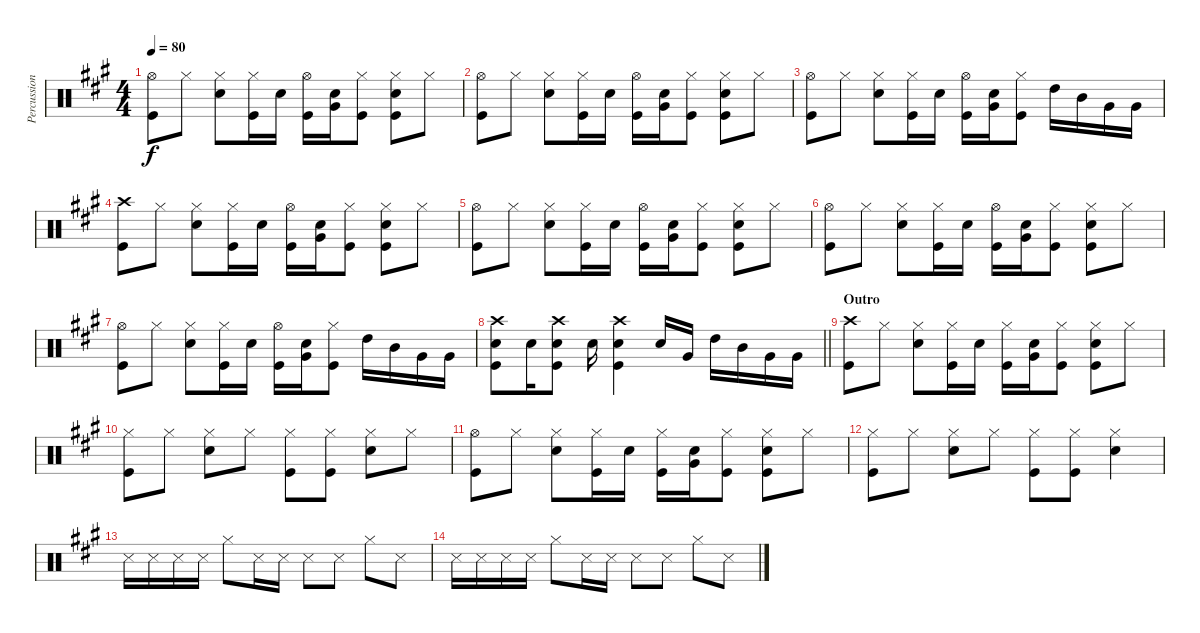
\track ("Percussion" "Percussion") {instrument percussion bank 47}
\staff {score}
\articulation defaults
\ts (4 4)
\tempo 80
\clef neutral
\ks a
("Hi-Hat (open)" "Kick (hit)").8{dy f} "Hi-Hat (closed)".8 ("Hi-Hat (closed)" "Snare (hit) 2").8 ("Hi-Hat (closed)" "Kick (hit)").16 "Snare (hit) 2".16 ("Hi-Hat (open)" "Kick (hit)").16 ("Very Low Tom (hit)" "Snare (hit) 2").16 ("Hi-Hat (closed)" "Kick (hit)").8 ("Hi-Hat (closed)" "Snare (hit) 2" "Kick (hit)").8 "Hi-Hat (closed)".8 |
("Hi-Hat (open)" "Kick (hit)").8 "Hi-Hat (closed)".8 ("Hi-Hat (closed)" "Snare (hit) 2").8 ("Hi-Hat (closed)" "Kick (hit)").16 "Snare (hit) 2".16 ("Hi-Hat (open)" "Kick (hit)").16 ("Very Low Tom (hit)" "Snare (hit) 2").16 ("Hi-Hat (closed)" "Kick (hit)").8 ("Hi-Hat (closed)" "Snare (hit) 2" "Kick (hit)").8 "Hi-Hat (closed)".8 |
("Hi-Hat (open)" "Kick (hit)").8 "Hi-Hat (closed)".8 ("Hi-Hat (closed)" "Snare (hit) 2").8 ("Hi-Hat (closed)" "Kick (hit)").16 "Snare (hit) 2".16 ("Hi-Hat (open)" "Kick (hit)").16 ("Very Low Tom (hit)" "Snare (hit) 2").16 ("Hi-Hat (closed)" "Kick (hit)").8 "High Tom (hit)".16 "Mid Tom (hit)".16 "Very Low Tom (hit)".16 "Very Low Tom (hit)".16 |
("Crash high (hit)" "Kick (hit)").8 "Hi-Hat (closed)".8 ("Hi-Hat (closed)" "Snare (hit) 2").8 ("Hi-Hat (closed)" "Kick (hit)").16 "Snare (hit) 2".16 ("Hi-Hat (open)" "Kick (hit)").16 ("Very Low Tom (hit)" "Snare (hit) 2").16 ("Hi-Hat (closed)" "Kick (hit)").8 ("Hi-Hat (closed)" "Snare (hit) 2" "Kick (hit)").8 "Hi-Hat (closed)".8 |
("Hi-Hat (open)" "Kick (hit)").8 "Hi-Hat (closed)".8 ("Hi-Hat (closed)" "Snare (hit) 2").8 ("Hi-Hat (closed)" "Kick (hit)").16 "Snare (hit) 2".16 ("Hi-Hat (open)" "Kick (hit)").16 ("Very Low Tom (hit)" "Snare (hit) 2").16 ("Hi-Hat (closed)" "Kick (hit)").8 ("Hi-Hat (closed)" "Snare (hit) 2" "Kick (hit)").8 "Hi-Hat (closed)".8 |
("Hi-Hat (open)" "Kick (hit)").8 "Hi-Hat (closed)".8 ("Hi-Hat (closed)" "Snare (hit) 2").8 ("Hi-Hat (closed)" "Kick (hit)").16 "Snare (hit) 2".16 ("Hi-Hat (open)" "Kick (hit)").16 ("Very Low Tom (hit)" "Snare (hit) 2").16 ("Hi-Hat (closed)" "Kick (hit)").8 ("Hi-Hat (closed)" "Snare (hit) 2" "Kick (hit)").8 "Hi-Hat (closed)".8 |
("Hi-Hat (open)" "Kick (hit)").8 "Hi-Hat (closed)".8 ("Hi-Hat (closed)" "Snare (hit) 2").8 ("Hi-Hat (closed)" "Kick (hit)").16 "Snare (hit) 2".16 ("Hi-Hat (open)" "Kick (hit)").16 ("Very Low Tom (hit)" "Snare (hit) 2").16 ("Hi-Hat (closed)" "Kick (hit)").8 "High Tom (hit)".16 "Mid Tom (hit)".16 "Very Low Tom (hit)".16 "Very Low Tom (hit)".16 |
\barLineRight lightlight
("Crash high (hit)" "Snare (hit) 2" "Kick (hit)").8 "Snare (hit) 2".16 ("Crash high (hit)" "Snare (hit) 2" "Kick (hit)").8 "Snare (hit) 2".16 ("Crash high (hit)" "Snare (hit) 2" "Kick (hit)").4 "Snare (hit) 2".16 "Very Low Tom (hit)".16 "High Tom (hit)".16 "Mid Tom (hit)".16 "Very Low Tom (hit)".16 "Very Low Tom (hit)".16 |
\section ("" "Outro")
("Crash high (hit)" "Kick (hit)").8 "Hi-Hat (closed)".8 ("Hi-Hat (closed)" "Snare (hit) 2").8 ("Hi-Hat (closed)" "Kick (hit)").16 "Snare (hit) 2".16 ("Hi-Hat (closed)" "Kick (hit)").16 ("Very Low Tom (hit)" "Snare (hit) 2").16 ("Hi-Hat (closed)" "Kick (hit)").8 ("Hi-Hat (closed)" "Snare (hit) 2" "Kick (hit)").8 "Hi-Hat (closed)".8 |
("Hi-Hat (closed)" "Kick (hit)").8 "Hi-Hat (closed)".8 ("Hi-Hat (closed)" "Snare (hit) 2").8 "Hi-Hat (closed)".8 ("Hi-Hat (closed)" "Kick (hit)").8 ("Hi-Hat (closed)" "Kick (hit)").8 ("Hi-Hat (closed)" "Snare (hit) 2").8 "Hi-Hat (closed)".8 |
("Hi-Hat (open)" "Kick (hit)").8 "Hi-Hat (closed)".8 ("Hi-Hat (closed)" "Snare (hit) 2").8 ("Hi-Hat (closed)" "Kick (hit)").16 "Snare (hit) 2".16 ("Hi-Hat (closed)" "Kick (hit)").16 ("Very Low Tom (hit)" "Snare (hit) 2").16 ("Hi-Hat (closed)" "Kick (hit)").8 ("Hi-Hat (closed)" "Snare (hit) 2" "Kick (hit)").8 "Hi-Hat (closed)".8 |
("Hi-Hat (closed)" "Kick (hit)").8 "Hi-Hat (closed)".8 ("Hi-Hat (closed)" "Snare (hit) 2").8 "Hi-Hat (closed)".8 ("Hi-Hat (closed)" "Kick (hit)").8 ("Hi-Hat (closed)" "Kick (hit)").8 ("Hi-Hat (closed)" "Snare (hit) 2").4 |
"Snare (side stick) 3".16{volume 10} "Snare (side stick) 3".16 "Snare (side stick) 3".16 "Snare (side stick) 3".16 "Hi-Hat (closed)".8 "Snare (side stick) 3".16 "Snare (side stick) 3".16 "Snare (side stick) 3".8{volume 0} "Snare (side stick) 3".8 "Hi-Hat (closed)".8 "Snare (side stick) 3".8 |
"Snare (side stick) 3".16 "Snare (side stick) 3".16 "Snare (side stick) 3".16 "Snare (side stick) 3".16 "Hi-Hat (closed)".8 "Snare (side stick) 3".16 "Snare (side stick) 3".16 "Snare (side stick) 3".8 "Snare (side stick) 3".8 "Hi-Hat (closed)".8 "Snare (side stick) 3".8
